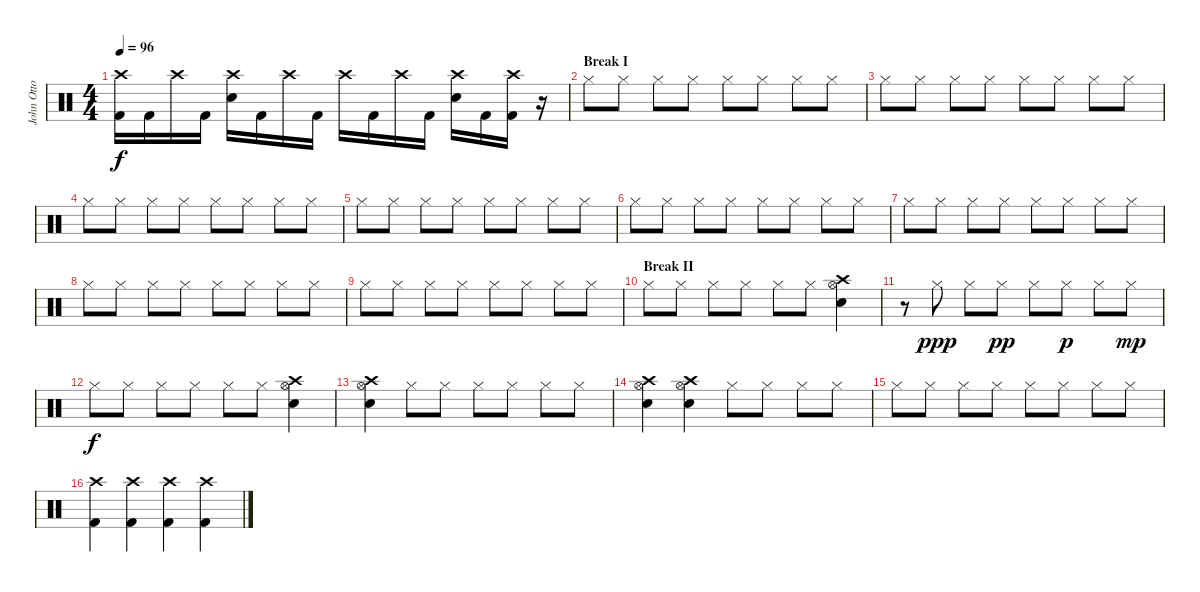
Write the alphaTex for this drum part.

\track ("John Otto - Drums" "John Otto ") {instrument percussion}
\staff {score}
\articulation defaults
\ts (4 4)
\tempo 96
\clef neutral
\ks c
("Crash high (hit)" "Kick (hit) 2").16{dy f} "Kick (hit) 2".16 "Crash high (hit)".16 "Kick (hit) 2".16 ("Crash high (hit)" "Snare (hit) 2").16 "Kick (hit) 2".16 "Crash high (hit)".16 "Kick (hit) 2".16 "Crash high (hit)".16 "Kick (hit) 2".16 "Crash high (hit)".16 "Kick (hit) 2".16 ("Crash high (hit)" "Snare (hit) 2").16 "Kick (hit) 2".16 ("Crash high (hit)" "Kick (hit) 2").16 r.16 |
\section ("" "Break I")
"Hi-Hat (closed)".8 "Hi-Hat (closed)".8 "Hi-Hat (closed)".8 "Hi-Hat (closed)".8 "Hi-Hat (closed)".8 "Hi-Hat (closed)".8 "Hi-Hat (closed)".8 "Hi-Hat (closed)".8 |
"Hi-Hat (closed)".8 "Hi-Hat (closed)".8 "Hi-Hat (closed)".8 "Hi-Hat (closed)".8 "Hi-Hat (closed)".8 "Hi-Hat (closed)".8 "Hi-Hat (closed)".8 "Hi-Hat (closed)".8 |
"Hi-Hat (closed)".8 "Hi-Hat (closed)".8 "Hi-Hat (closed)".8 "Hi-Hat (closed)".8 "Hi-Hat (closed)".8 "Hi-Hat (closed)".8 "Hi-Hat (closed)".8 "Hi-Hat (closed)".8 |
"Hi-Hat (closed)".8 "Hi-Hat (closed)".8 "Hi-Hat (closed)".8 "Hi-Hat (closed)".8 "Hi-Hat (closed)".8 "Hi-Hat (closed)".8 "Hi-Hat (closed)".8 "Hi-Hat (closed)".8 |
"Hi-Hat (closed)".8 "Hi-Hat (closed)".8 "Hi-Hat (closed)".8 "Hi-Hat (closed)".8 "Hi-Hat (closed)".8 "Hi-Hat (closed)".8 "Hi-Hat (closed)".8 "Hi-Hat (closed)".8 |
"Hi-Hat (closed)".8 "Hi-Hat (closed)".8 "Hi-Hat (closed)".8 "Hi-Hat (closed)".8 "Hi-Hat (closed)".8 "Hi-Hat (closed)".8 "Hi-Hat (closed)".8 "Hi-Hat (closed)".8 |
"Hi-Hat (closed)".8 "Hi-Hat (closed)".8 "Hi-Hat (closed)".8 "Hi-Hat (closed)".8 "Hi-Hat (closed)".8 "Hi-Hat (closed)".8 "Hi-Hat (closed)".8 "Hi-Hat (closed)".8 |
"Hi-Hat (closed)".8 "Hi-Hat (closed)".8 "Hi-Hat (closed)".8 "Hi-Hat (closed)".8 "Hi-Hat (closed)".8 "Hi-Hat (closed)".8 "Hi-Hat (closed)".8 "Hi-Hat (closed)".8 |
\section ("" "Break II")
"Hi-Hat (closed)".8 "Hi-Hat (closed)".8 "Hi-Hat (closed)".8 "Hi-Hat (closed)".8 "Hi-Hat (closed)".8 "Hi-Hat (closed)".8 ("Crash high (hit)" "Hi-Hat (open)" "Snare (hit) 2").4 |
r.8 "Hi-Hat (closed)".8{dy ppp} "Hi-Hat (closed)".8 "Hi-Hat (closed)".8{dy pp} "Hi-Hat (closed)".8 "Hi-Hat (closed)".8{dy p} "Hi-Hat (closed)".8 "Hi-Hat (closed)".8{dy mp} |
"Hi-Hat (closed)".8{dy f} "Hi-Hat (closed)".8 "Hi-Hat (closed)".8 "Hi-Hat (closed)".8 "Hi-Hat (closed)".8 "Hi-Hat (closed)".8 ("Crash high (hit)" "Hi-Hat (open)" "Snare (hit) 2").4 |
("Crash high (hit)" "Hi-Hat (open)" "Snare (hit) 2").4 "Hi-Hat (closed)".8 "Hi-Hat (closed)".8 "Hi-Hat (closed)".8 "Hi-Hat (closed)".8 "Hi-Hat (closed)".8 "Hi-Hat (closed)".8 |
("Crash high (hit)" "Hi-Hat (open)" "Snare (hit) 2").4 ("Crash high (hit)" "Hi-Hat (open)" "Snare (hit) 2").4 "Hi-Hat (closed)".8 "Hi-Hat (closed)".8 "Hi-Hat (closed)".8 "Hi-Hat (closed)".8 |
"Hi-Hat (closed)".8 "Hi-Hat (closed)".8 "Hi-Hat (closed)".8 "Hi-Hat (closed)".8 "Hi-Hat (closed)".8 "Hi-Hat (closed)".8 "Hi-Hat (closed)".8 "Hi-Hat (closed)".8 |
("Crash high (hit)" "Kick (hit) 2").4 ("Crash high (hit)" "Kick (hit) 2").4 ("Crash high (hit)" "Kick (hit) 2").4 ("Crash high (hit)" "Kick (hit) 2").4
